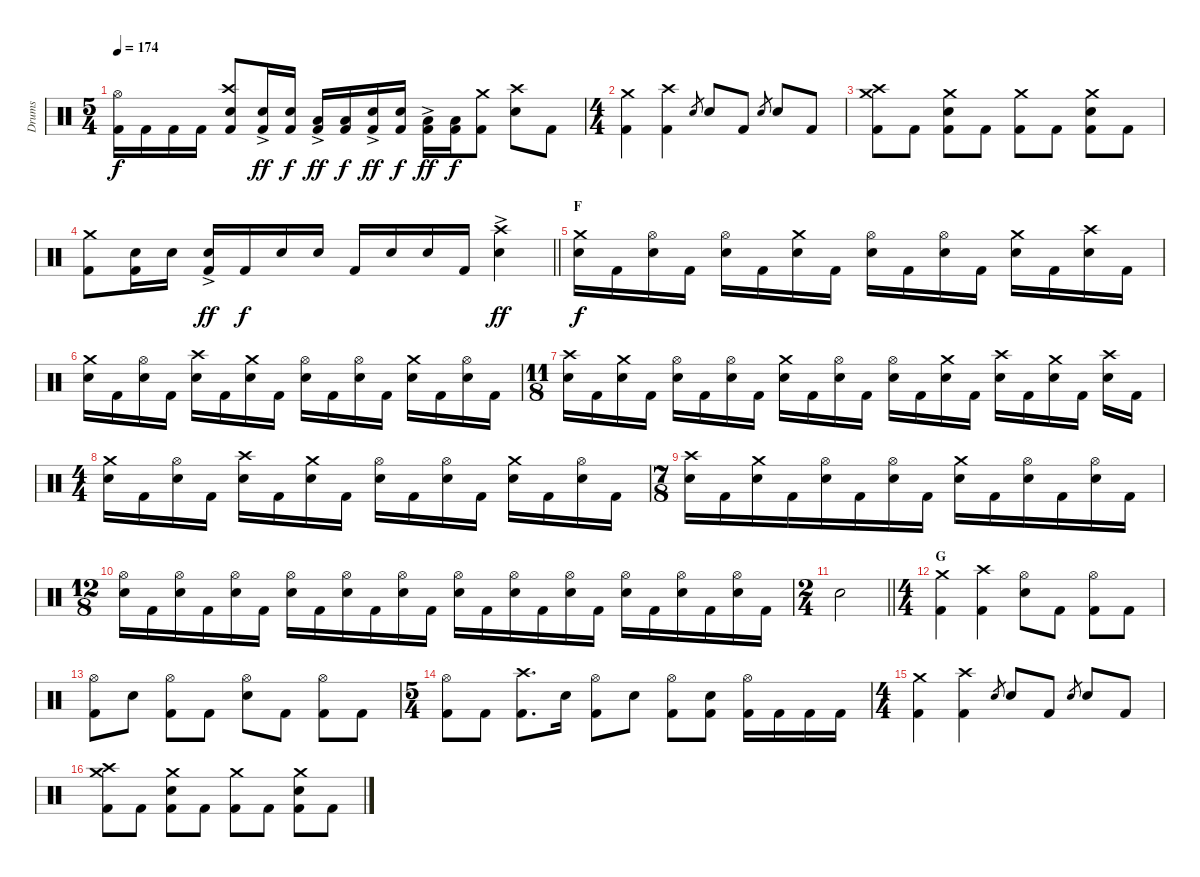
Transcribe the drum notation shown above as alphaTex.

\track ("Drums" "Drums") {instrument percussion}
\staff {score}
\articulation defaults
\ts (5 4)
\tempo 174
\clef neutral
\ks c
("Hi-Hat (open)" "Kick (hit) 2").16{dy f} "Kick (hit) 2".16 "Kick (hit) 2".16 "Kick (hit) 2".16 ("Crash high (hit)" "Electric Snare (hit)" "Kick (hit) 2").8 ("Electric Snare (hit)"{ac} "Kick (hit) 2").16{dy ff} ("Electric Snare (hit)" "Kick (hit) 2").16{dy f} ("Low Tom (hit)"{ac} "Kick (hit) 2").16{dy ff} ("Low Tom (hit)" "Kick (hit) 2").16{dy f} ("Electric Snare (hit)"{ac} "Kick (hit) 2").16{dy ff} ("Electric Snare (hit)" "Kick (hit) 2").16{dy f} ("Low Tom (hit)"{ac} "Kick (hit) 2").16{dy ff} ("Low Tom (hit)" "Kick (hit) 2").16{dy f} ("Crash medium (hit)" "Kick (hit) 2").8 ("Crash high (hit)" "Electric Snare (hit)").8 "Kick (hit) 2".8 |
\ts (4 4)
("Crash medium (hit)" "Kick (hit) 2").4 ("Crash high (hit)" "Kick (hit) 2").4 "Electric Snare (hit)".8{gr} "Electric Snare (hit)".8 "Kick (hit) 2".8 "Electric Snare (hit)".8{gr} "Electric Snare (hit)".8 "Kick (hit) 2".8 |
("Crash medium (hit)" "Crash high (hit)" "Kick (hit) 2").8 "Kick (hit) 2".8 ("Crash medium (hit)" "Electric Snare (hit)" "Kick (hit) 2").8 "Kick (hit) 2".8 ("Crash medium (hit)" "Kick (hit) 2").8 "Kick (hit) 2".8 ("Crash medium (hit)" "Electric Snare (hit)" "Kick (hit) 2").8 "Kick (hit) 2".8 |
\barLineRight lightlight
("Crash medium (hit)" "Kick (hit) 2").8 ("Electric Snare (hit)" "Kick (hit) 2").16 "Electric Snare (hit)".16 ("Electric Snare (hit)"{ac} "Kick (hit) 2").16{dy ff} "Kick (hit) 2".16{dy f} "Electric Snare (hit)".16 "Electric Snare (hit)".16 "Kick (hit) 2".16 "Electric Snare (hit)".16 "Electric Snare (hit)".16 "Kick (hit) 2".16 ("Crash high (hit)" "Electric Snare (hit)"{ac}).4{dy ff} |
\section ("" "F")
("Crash medium (hit)" "Electric Snare (hit)").16{dy f} "Kick (hit) 2".16 ("Hi-Hat (open)" "Electric Snare (hit)").16 "Kick (hit) 2".16 ("Hi-Hat (open)" "Electric Snare (hit)").16 "Kick (hit) 2".16 ("Crash medium (hit)" "Electric Snare (hit)").16 "Kick (hit) 2".16 ("Hi-Hat (open)" "Electric Snare (hit)").16 "Kick (hit) 2".16 ("Hi-Hat (open)" "Electric Snare (hit)").16 "Kick (hit) 2".16 ("Crash medium (hit)" "Electric Snare (hit)").16 "Kick (hit) 2".16 ("Crash high (hit)" "Electric Snare (hit)").16 "Kick (hit) 2".16 |
("Crash medium (hit)" "Electric Snare (hit)").16 "Kick (hit) 2".16 ("Hi-Hat (open)" "Electric Snare (hit)").16 "Kick (hit) 2".16 ("Crash high (hit)" "Electric Snare (hit)").16 "Kick (hit) 2".16 ("Crash medium (hit)" "Electric Snare (hit)").16 "Kick (hit) 2".16 ("Hi-Hat (open)" "Electric Snare (hit)").16 "Kick (hit) 2".16 ("Hi-Hat (open)" "Electric Snare (hit)").16 "Kick (hit) 2".16 ("Crash medium (hit)" "Electric Snare (hit)").16 "Kick (hit) 2".16 ("Hi-Hat (open)" "Electric Snare (hit)").16 "Kick (hit) 2".16 |
\ts (11 8)
("Crash high (hit)" "Electric Snare (hit)").16 "Kick (hit) 2".16 ("Crash medium (hit)" "Electric Snare (hit)").16 "Kick (hit) 2".16 ("Hi-Hat (open)" "Electric Snare (hit)").16 "Kick (hit) 2".16 ("Hi-Hat (open)" "Electric Snare (hit)").16 "Kick (hit) 2".16 ("Crash medium (hit)" "Electric Snare (hit)").16 "Kick (hit) 2".16 ("Hi-Hat (open)" "Electric Snare (hit)").16 "Kick (hit) 2".16 ("Hi-Hat (open)" "Electric Snare (hit)").16 "Kick (hit) 2".16 ("Crash medium (hit)" "Electric Snare (hit)").16 "Kick (hit) 2".16 ("Crash high (hit)" "Electric Snare (hit)").16 "Kick (hit) 2".16 ("Crash medium (hit)" "Electric Snare (hit)").16 "Kick (hit) 2".16 ("Crash high (hit)" "Electric Snare (hit)").16 "Kick (hit) 2".16 |
\ts (4 4)
("Crash medium (hit)" "Electric Snare (hit)").16 "Kick (hit) 2".16 ("Hi-Hat (open)" "Electric Snare (hit)").16 "Kick (hit) 2".16 ("Crash high (hit)" "Electric Snare (hit)").16 "Kick (hit) 2".16 ("Crash medium (hit)" "Electric Snare (hit)").16 "Kick (hit) 2".16 ("Hi-Hat (open)" "Electric Snare (hit)").16 "Kick (hit) 2".16 ("Hi-Hat (open)" "Electric Snare (hit)").16 "Kick (hit) 2".16 ("Crash medium (hit)" "Electric Snare (hit)").16 "Kick (hit) 2".16 ("Hi-Hat (open)" "Electric Snare (hit)").16 "Kick (hit) 2".16 |
\ts (7 8)
("Crash high (hit)" "Electric Snare (hit)").16 "Kick (hit) 2".16 ("Crash medium (hit)" "Electric Snare (hit)").16 "Kick (hit) 2".16 ("Hi-Hat (open)" "Electric Snare (hit)").16 "Kick (hit) 2".16 ("Hi-Hat (open)" "Electric Snare (hit)").16 "Kick (hit) 2".16 ("Crash medium (hit)" "Electric Snare (hit)").16 "Kick (hit) 2".16 ("Hi-Hat (open)" "Electric Snare (hit)").16 "Kick (hit) 2".16 ("Hi-Hat (open)" "Electric Snare (hit)").16 "Kick (hit) 2".16 |
\ts (12 8)
("Hi-Hat (open)" "Electric Snare (hit)").16 "Kick (hit) 2".16 ("Hi-Hat (open)" "Electric Snare (hit)").16 "Kick (hit) 2".16 ("Hi-Hat (open)" "Electric Snare (hit)").16 "Kick (hit) 2".16 ("Hi-Hat (open)" "Electric Snare (hit)").16 "Kick (hit) 2".16 ("Hi-Hat (open)" "Electric Snare (hit)").16 "Kick (hit) 2".16 ("Hi-Hat (open)" "Electric Snare (hit)").16 "Kick (hit) 2".16 ("Hi-Hat (open)" "Electric Snare (hit)").16 "Kick (hit) 2".16 ("Hi-Hat (open)" "Electric Snare (hit)").16 "Kick (hit) 2".16 ("Hi-Hat (open)" "Electric Snare (hit)").16 "Kick (hit) 2".16 ("Hi-Hat (open)" "Electric Snare (hit)").16 "Kick (hit) 2".16 ("Hi-Hat (open)" "Electric Snare (hit)").16 "Kick (hit) 2".16 ("Hi-Hat (open)" "Electric Snare (hit)").16 "Kick (hit) 2".16 |
\ts (2 4)
\barLineRight lightlight "Electric Snare (hit)".2
|
\ts (4 4)
\section ("" "G")
("Crash medium (hit)" "Kick (hit) 2").4 ("Crash high (hit)" "Kick (hit) 2").4 ("Hi-Hat (open)" "Electric Snare (hit)").8 "Kick (hit) 2".8 ("Hi-Hat (open)" "Kick (hit) 2").8 "Kick (hit) 2".8 |
("Hi-Hat (open)" "Kick (hit) 2").8 "Electric Snare (hit)".8 ("Hi-Hat (open)" "Kick (hit) 2").8 "Kick (hit) 2".8 ("Hi-Hat (open)" "Electric Snare (hit)").8 "Kick (hit) 2".8 ("Hi-Hat (open)" "Kick (hit) 2").8 "Kick (hit) 2".8 |
\ts (5 4)
("Hi-Hat (open)" "Kick (hit) 2").8 "Kick (hit) 2".8 ("Crash high (hit)" "Kick (hit) 2").8{d} "Electric Snare (hit)".16 ("Hi-Hat (open)" "Kick (hit) 2").8 "Electric Snare (hit)".8 ("Hi-Hat (open)" "Kick (hit) 2").8 ("Electric Snare (hit)" "Kick (hit) 2").8 ("Hi-Hat (open)" "Kick (hit) 2").16 "Kick (hit) 2".16 "Kick (hit) 2".16 "Kick (hit) 2".16 |
\ts (4 4)
("Crash medium (hit)" "Kick (hit) 2").4 ("Crash high (hit)" "Kick (hit) 2").4 "Electric Snare (hit)".8{gr} "Electric Snare (hit)".8 "Kick (hit) 2".8 "Electric Snare (hit)".8{gr} "Electric Snare (hit)".8 "Kick (hit) 2".8 |
("Crash medium (hit)" "Crash high (hit)" "Kick (hit) 2").8 "Kick (hit) 2".8 ("Crash medium (hit)" "Electric Snare (hit)" "Kick (hit) 2").8 "Kick (hit) 2".8 ("Crash medium (hit)" "Kick (hit) 2").8 "Kick (hit) 2".8 ("Crash medium (hit)" "Electric Snare (hit)" "Kick (hit) 2").8 "Kick (hit) 2".8
